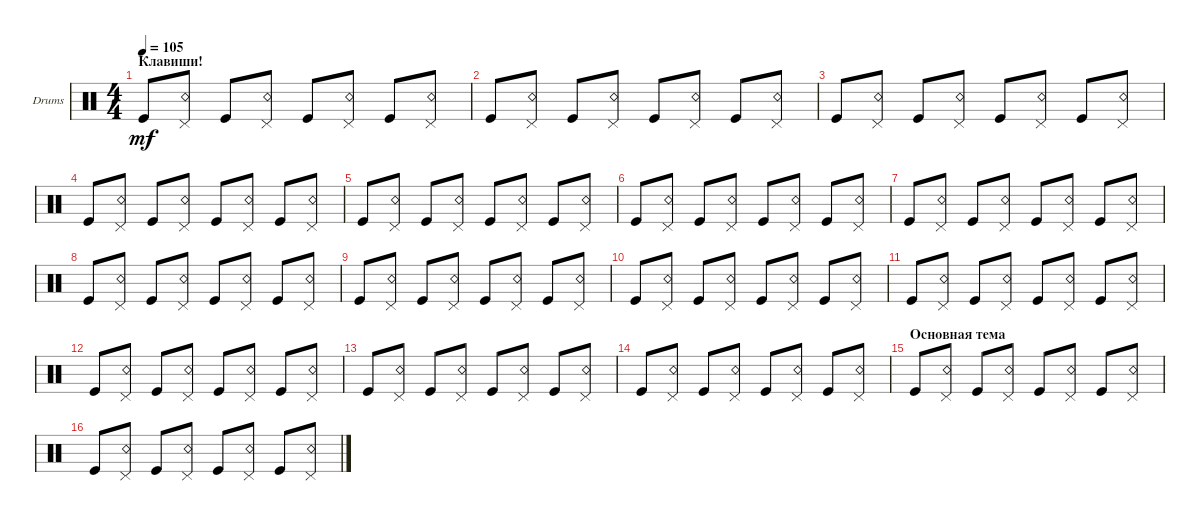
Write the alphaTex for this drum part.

\defaultSystemsLayout 4
\bracketExtendMode groupsimilarinstruments
\firstSystemTrackNameOrientation horizontal
\otherSystemsTrackNameOrientation horizontal
\track ("Drumkit" "Drums") {instrument percussion}
\staff {score}
\articulation defaults
\ts (4 4)
\section ("" "Клавиши!")
\tempo 105
\clef neutral
\ks c "Kick (hit)".8{dy mf}
("Pedal Hi-Hat (hit)" "Snare (rim shot)").8 "Kick (hit)".8 ("Pedal Hi-Hat (hit)" "Snare (rim shot)").8 "Kick (hit)".8 ("Pedal Hi-Hat (hit)" "Snare (rim shot)").8 "Kick (hit)".8 ("Pedal Hi-Hat (hit)" "Snare (rim shot)").8 |
"Kick (hit)".8 ("Pedal Hi-Hat (hit)" "Snare (rim shot)").8 "Kick (hit)".8 ("Pedal Hi-Hat (hit)" "Snare (rim shot)").8 "Kick (hit)".8 ("Pedal Hi-Hat (hit)" "Snare (rim shot)").8 "Kick (hit)".8 ("Pedal Hi-Hat (hit)" "Snare (rim shot)").8 |
"Kick (hit)".8 ("Pedal Hi-Hat (hit)" "Snare (rim shot)").8 "Kick (hit)".8 ("Pedal Hi-Hat (hit)" "Snare (rim shot)").8 "Kick (hit)".8 ("Pedal Hi-Hat (hit)" "Snare (rim shot)").8 "Kick (hit)".8 ("Pedal Hi-Hat (hit)" "Snare (rim shot)").8 |
"Kick (hit)".8 ("Pedal Hi-Hat (hit)" "Snare (rim shot)").8 "Kick (hit)".8 ("Pedal Hi-Hat (hit)" "Snare (rim shot)").8 "Kick (hit)".8 ("Pedal Hi-Hat (hit)" "Snare (rim shot)").8 "Kick (hit)".8 ("Pedal Hi-Hat (hit)" "Snare (rim shot)").8 |
"Kick (hit)".8 ("Pedal Hi-Hat (hit)" "Snare (rim shot)").8 "Kick (hit)".8 ("Pedal Hi-Hat (hit)" "Snare (rim shot)").8 "Kick (hit)".8 ("Pedal Hi-Hat (hit)" "Snare (rim shot)").8 "Kick (hit)".8 ("Pedal Hi-Hat (hit)" "Snare (rim shot)").8 |
"Kick (hit)".8 ("Pedal Hi-Hat (hit)" "Snare (rim shot)").8 "Kick (hit)".8 ("Pedal Hi-Hat (hit)" "Snare (rim shot)").8 "Kick (hit)".8 ("Pedal Hi-Hat (hit)" "Snare (rim shot)").8 "Kick (hit)".8 ("Pedal Hi-Hat (hit)" "Snare (rim shot)").8 |
"Kick (hit)".8 ("Pedal Hi-Hat (hit)" "Snare (rim shot)").8 "Kick (hit)".8 ("Pedal Hi-Hat (hit)" "Snare (rim shot)").8 "Kick (hit)".8 ("Pedal Hi-Hat (hit)" "Snare (rim shot)").8 "Kick (hit)".8 ("Pedal Hi-Hat (hit)" "Snare (rim shot)").8 |
"Kick (hit)".8 ("Pedal Hi-Hat (hit)" "Snare (rim shot)").8 "Kick (hit)".8 ("Pedal Hi-Hat (hit)" "Snare (rim shot)").8 "Kick (hit)".8 ("Pedal Hi-Hat (hit)" "Snare (rim shot)").8 "Kick (hit)".8 ("Pedal Hi-Hat (hit)" "Snare (rim shot)").8 |
"Kick (hit)".8 ("Pedal Hi-Hat (hit)" "Snare (rim shot)").8 "Kick (hit)".8 ("Pedal Hi-Hat (hit)" "Snare (rim shot)").8 "Kick (hit)".8 ("Pedal Hi-Hat (hit)" "Snare (rim shot)").8 "Kick (hit)".8 ("Pedal Hi-Hat (hit)" "Snare (rim shot)").8 |
"Kick (hit)".8 ("Pedal Hi-Hat (hit)" "Snare (rim shot)").8 "Kick (hit)".8 ("Pedal Hi-Hat (hit)" "Snare (rim shot)").8 "Kick (hit)".8 ("Pedal Hi-Hat (hit)" "Snare (rim shot)").8 "Kick (hit)".8 ("Pedal Hi-Hat (hit)" "Snare (rim shot)").8 |
"Kick (hit)".8 ("Pedal Hi-Hat (hit)" "Snare (rim shot)").8 "Kick (hit)".8 ("Pedal Hi-Hat (hit)" "Snare (rim shot)").8 "Kick (hit)".8 ("Pedal Hi-Hat (hit)" "Snare (rim shot)").8 "Kick (hit)".8 ("Pedal Hi-Hat (hit)" "Snare (rim shot)").8 |
"Kick (hit)".8 ("Pedal Hi-Hat (hit)" "Snare (rim shot)").8 "Kick (hit)".8 ("Pedal Hi-Hat (hit)" "Snare (rim shot)").8 "Kick (hit)".8 ("Pedal Hi-Hat (hit)" "Snare (rim shot)").8 "Kick (hit)".8 ("Pedal Hi-Hat (hit)" "Snare (rim shot)").8 |
"Kick (hit)".8 ("Pedal Hi-Hat (hit)" "Snare (rim shot)").8 "Kick (hit)".8 ("Pedal Hi-Hat (hit)" "Snare (rim shot)").8 "Kick (hit)".8 ("Pedal Hi-Hat (hit)" "Snare (rim shot)").8 "Kick (hit)".8 ("Pedal Hi-Hat (hit)" "Snare (rim shot)").8 |
"Kick (hit)".8 ("Pedal Hi-Hat (hit)" "Snare (rim shot)").8 "Kick (hit)".8 ("Pedal Hi-Hat (hit)" "Snare (rim shot)").8 "Kick (hit)".8 ("Pedal Hi-Hat (hit)" "Snare (rim shot)").8 "Kick (hit)".8 ("Pedal Hi-Hat (hit)" "Snare (rim shot)").8 |
\section ("" "Основная тема")
"Kick (hit)".8 ("Pedal Hi-Hat (hit)" "Snare (rim shot)").8 "Kick (hit)".8 ("Pedal Hi-Hat (hit)" "Snare (rim shot)").8 "Kick (hit)".8 ("Pedal Hi-Hat (hit)" "Snare (rim shot)").8 "Kick (hit)".8 ("Pedal Hi-Hat (hit)" "Snare (rim shot)").8 |
"Kick (hit)".8 ("Pedal Hi-Hat (hit)" "Snare (rim shot)").8 "Kick (hit)".8 ("Pedal Hi-Hat (hit)" "Snare (rim shot)").8 "Kick (hit)".8 ("Pedal Hi-Hat (hit)" "Snare (rim shot)").8 "Kick (hit)".8 ("Pedal Hi-Hat (hit)" "Snare (rim shot)").8
